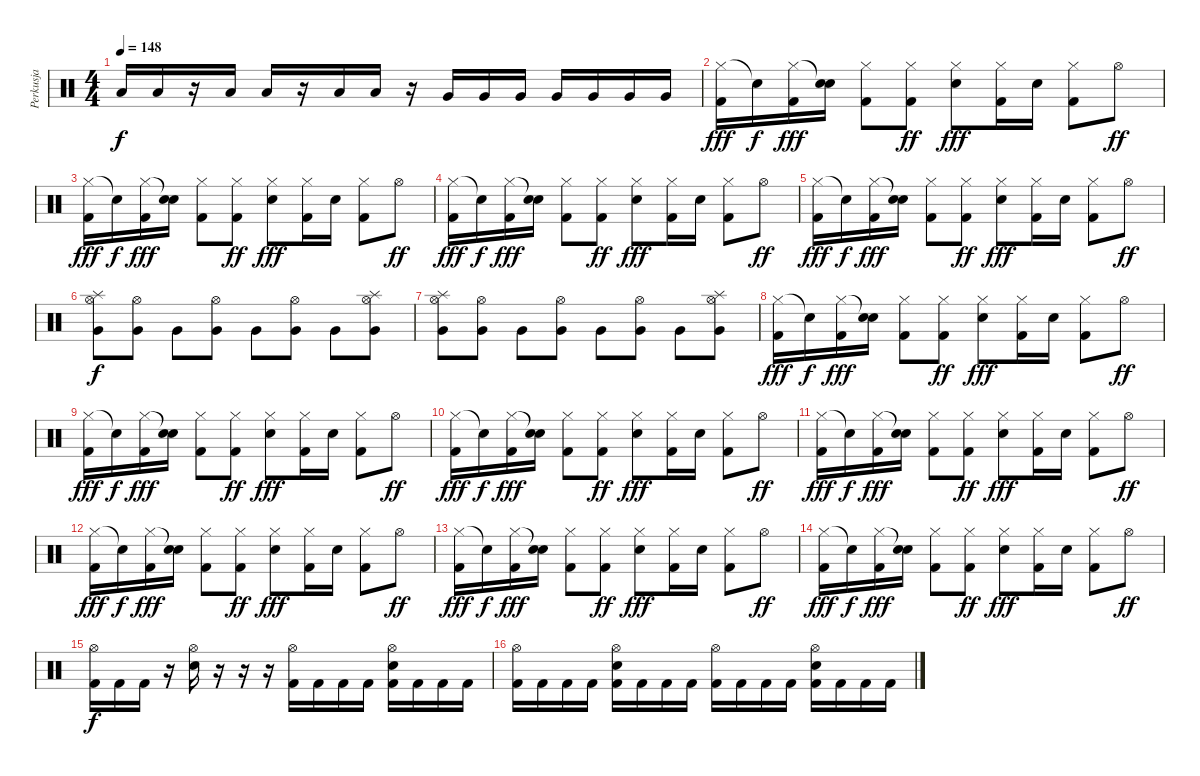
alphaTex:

\track ("Perkusja" "Perkusja") {instrument percussion}
\staff {score}
\articulation defaults
\ts (4 4)
\tempo 148
\clef neutral
\ks c "Low Tom (hit)".16{dy f} "Low Tom (hit)".16
r.16 "Low Tom (hit)".16 "Low Tom (hit)".16 r.16 "Low Tom (hit)".16 "Low Tom (hit)".16 r.16 "Very Low Tom (hit)".16 "Very Low Tom (hit)".16 "Very Low Tom (hit)".16 "Very Low Tom (hit)".16 "Very Low Tom (hit)".16 "Very Low Tom (hit)".16 "Very Low Tom (hit)".16 |
("Hi-Hat (closed)" "Kick (hit) 2").16{dy fff} "Snare (hit)"{t}.16{dy f} ("Hi-Hat (closed)" "Kick (hit) 2").16{dy fff} ("Snare (hit)"{t} "Electric Snare (hit)").16 ("Hi-Hat (closed)" "Kick (hit) 2").8 ("Hi-Hat (closed)" "Kick (hit) 2").8{dy ff} ("Hi-Hat (closed)" "Electric Snare (hit)").8{dy fff} ("Hi-Hat (closed)" "Kick (hit) 2").16 "Electric Snare (hit)".16 ("Hi-Hat (closed)" "Kick (hit) 2").8 "Hi-Hat (open)".8{dy ff} |
("Hi-Hat (closed)" "Kick (hit) 2").16{dy fff} "Snare (hit)"{t}.16{dy f} ("Hi-Hat (closed)" "Kick (hit) 2").16{dy fff} ("Snare (hit)"{t} "Electric Snare (hit)").16 ("Hi-Hat (closed)" "Kick (hit) 2").8 ("Hi-Hat (closed)" "Kick (hit) 2").8{dy ff} ("Hi-Hat (closed)" "Electric Snare (hit)").8{dy fff} ("Hi-Hat (closed)" "Kick (hit) 2").16 "Electric Snare (hit)".16 ("Hi-Hat (closed)" "Kick (hit) 2").8 "Hi-Hat (open)".8{dy ff} |
("Hi-Hat (closed)" "Kick (hit) 2").16{dy fff} "Snare (hit)"{t}.16{dy f} ("Hi-Hat (closed)" "Kick (hit) 2").16{dy fff} ("Snare (hit)"{t} "Electric Snare (hit)").16 ("Hi-Hat (closed)" "Kick (hit) 2").8 ("Hi-Hat (closed)" "Kick (hit) 2").8{dy ff} ("Hi-Hat (closed)" "Electric Snare (hit)").8{dy fff} ("Hi-Hat (closed)" "Kick (hit) 2").16 "Electric Snare (hit)".16 ("Hi-Hat (closed)" "Kick (hit) 2").8 "Hi-Hat (open)".8{dy ff} |
("Hi-Hat (closed)" "Kick (hit) 2").16{dy fff} "Snare (hit)"{t}.16{dy f} ("Hi-Hat (closed)" "Kick (hit) 2").16{dy fff} ("Snare (hit)"{t} "Electric Snare (hit)").16 ("Hi-Hat (closed)" "Kick (hit) 2").8 ("Hi-Hat (closed)" "Kick (hit) 2").8{dy ff} ("Hi-Hat (closed)" "Electric Snare (hit)").8{dy fff} ("Hi-Hat (closed)" "Kick (hit) 2").16 "Electric Snare (hit)".16 ("Hi-Hat (closed)" "Kick (hit) 2").8 "Hi-Hat (open)".8{dy ff} |
("Very Low Tom (hit)" "Splash (hit)" "Hi-Hat (open)").8{dy f} ("Very Low Tom (hit)" "Hi-Hat (open)").8 "Very Low Tom (hit)".8 ("Very Low Tom (hit)" "Hi-Hat (open)").8 "Very Low Tom (hit)".8 ("Very Low Tom (hit)" "Hi-Hat (open)").8 "Very Low Tom (hit)".8 ("Very Low Tom (hit)" "Splash (hit)" "Hi-Hat (open)").8 |
("Very Low Tom (hit)" "Splash (hit)" "Hi-Hat (open)").8 ("Very Low Tom (hit)" "Hi-Hat (open)").8 "Very Low Tom (hit)".8 ("Very Low Tom (hit)" "Hi-Hat (open)").8 "Very Low Tom (hit)".8 ("Very Low Tom (hit)" "Hi-Hat (open)").8 "Very Low Tom (hit)".8 ("Very Low Tom (hit)" "Splash (hit)" "Hi-Hat (open)").8 |
("Hi-Hat (closed)" "Kick (hit) 2").16{dy fff} "Snare (hit)"{t}.16{dy f} ("Hi-Hat (closed)" "Kick (hit) 2").16{dy fff} ("Snare (hit)"{t} "Electric Snare (hit)").16 ("Hi-Hat (closed)" "Kick (hit) 2").8 ("Hi-Hat (closed)" "Kick (hit) 2").8{dy ff} ("Hi-Hat (closed)" "Electric Snare (hit)").8{dy fff} ("Hi-Hat (closed)" "Kick (hit) 2").16 "Electric Snare (hit)".16 ("Hi-Hat (closed)" "Kick (hit) 2").8 "Hi-Hat (open)".8{dy ff} |
("Hi-Hat (closed)" "Kick (hit) 2").16{dy fff} "Snare (hit)"{t}.16{dy f} ("Hi-Hat (closed)" "Kick (hit) 2").16{dy fff} ("Snare (hit)"{t} "Electric Snare (hit)").16 ("Hi-Hat (closed)" "Kick (hit) 2").8 ("Hi-Hat (closed)" "Kick (hit) 2").8{dy ff} ("Hi-Hat (closed)" "Electric Snare (hit)").8{dy fff} ("Hi-Hat (closed)" "Kick (hit) 2").16 "Electric Snare (hit)".16 ("Hi-Hat (closed)" "Kick (hit) 2").8 "Hi-Hat (open)".8{dy ff} |
("Hi-Hat (closed)" "Kick (hit) 2").16{dy fff} "Snare (hit)"{t}.16{dy f} ("Hi-Hat (closed)" "Kick (hit) 2").16{dy fff} ("Snare (hit)"{t} "Electric Snare (hit)").16 ("Hi-Hat (closed)" "Kick (hit) 2").8 ("Hi-Hat (closed)" "Kick (hit) 2").8{dy ff} ("Hi-Hat (closed)" "Electric Snare (hit)").8{dy fff} ("Hi-Hat (closed)" "Kick (hit) 2").16 "Electric Snare (hit)".16 ("Hi-Hat (closed)" "Kick (hit) 2").8 "Hi-Hat (open)".8{dy ff} |
("Hi-Hat (closed)" "Kick (hit) 2").16{dy fff} "Snare (hit)"{t}.16{dy f} ("Hi-Hat (closed)" "Kick (hit) 2").16{dy fff} ("Snare (hit)"{t} "Electric Snare (hit)").16 ("Hi-Hat (closed)" "Kick (hit) 2").8 ("Hi-Hat (closed)" "Kick (hit) 2").8{dy ff} ("Hi-Hat (closed)" "Electric Snare (hit)").8{dy fff} ("Hi-Hat (closed)" "Kick (hit) 2").16 "Electric Snare (hit)".16 ("Hi-Hat (closed)" "Kick (hit) 2").8 "Hi-Hat (open)".8{dy ff} |
("Hi-Hat (closed)" "Kick (hit) 2").16{dy fff} "Snare (hit)"{t}.16{dy f} ("Hi-Hat (closed)" "Kick (hit) 2").16{dy fff} ("Snare (hit)"{t} "Electric Snare (hit)").16 ("Hi-Hat (closed)" "Kick (hit) 2").8 ("Hi-Hat (closed)" "Kick (hit) 2").8{dy ff} ("Hi-Hat (closed)" "Electric Snare (hit)").8{dy fff} ("Hi-Hat (closed)" "Kick (hit) 2").16 "Electric Snare (hit)".16 ("Hi-Hat (closed)" "Kick (hit) 2").8 "Hi-Hat (open)".8{dy ff} |
("Hi-Hat (closed)" "Kick (hit) 2").16{dy fff} "Snare (hit)"{t}.16{dy f} ("Hi-Hat (closed)" "Kick (hit) 2").16{dy fff} ("Snare (hit)"{t} "Electric Snare (hit)").16 ("Hi-Hat (closed)" "Kick (hit) 2").8 ("Hi-Hat (closed)" "Kick (hit) 2").8{dy ff} ("Hi-Hat (closed)" "Electric Snare (hit)").8{dy fff} ("Hi-Hat (closed)" "Kick (hit) 2").16 "Electric Snare (hit)".16 ("Hi-Hat (closed)" "Kick (hit) 2").8 "Hi-Hat (open)".8{dy ff} |
("Hi-Hat (closed)" "Kick (hit) 2").16{dy fff} "Snare (hit)"{t}.16{dy f} ("Hi-Hat (closed)" "Kick (hit) 2").16{dy fff} ("Snare (hit)"{t} "Electric Snare (hit)").16 ("Hi-Hat (closed)" "Kick (hit) 2").8 ("Hi-Hat (closed)" "Kick (hit) 2").8{dy ff} ("Hi-Hat (closed)" "Electric Snare (hit)").8{dy fff} ("Hi-Hat (closed)" "Kick (hit) 2").16 "Electric Snare (hit)".16 ("Hi-Hat (closed)" "Kick (hit) 2").8 "Hi-Hat (open)".8{dy ff} |
("Hi-Hat (open)" "Kick (hit) 2").16{dy f} "Kick (hit) 2".16 "Kick (hit) 2".16 r.16 ("Hi-Hat (open)" "Electric Snare (hit)").16 r.16 r.16 r.16 ("Hi-Hat (open)" "Kick (hit) 2").16 "Kick (hit) 2".16 "Kick (hit) 2".16 "Kick (hit) 2".16 ("Hi-Hat (open)" "Electric Snare (hit)" "Kick (hit) 2").16 "Kick (hit) 2".16 "Kick (hit) 2".16 "Kick (hit) 2".16 |
("Hi-Hat (open)" "Kick (hit) 2").16 "Kick (hit) 2".16 "Kick (hit) 2".16 "Kick (hit) 2".16 ("Hi-Hat (open)" "Electric Snare (hit)" "Kick (hit) 2").16 "Kick (hit) 2".16 "Kick (hit) 2".16 "Kick (hit) 2".16 ("Hi-Hat (open)" "Kick (hit) 2").16 "Kick (hit) 2".16 "Kick (hit) 2".16 "Kick (hit) 2".16 ("Hi-Hat (open)" "Electric Snare (hit)" "Kick (hit) 2").16 "Kick (hit) 2".16 "Kick (hit) 2".16 "Kick (hit) 2".16
